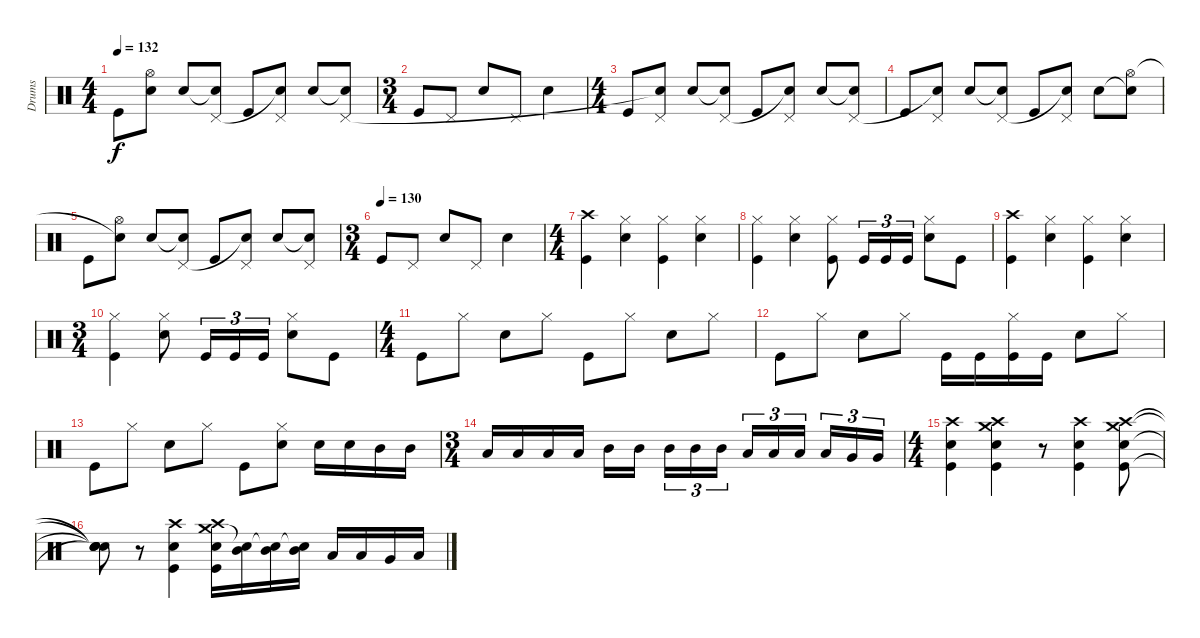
\track ("Drums" "Drums") {instrument percussion}
\staff {score}
\articulation defaults
\ts (4 4)
\tempo 132
\clef neutral
\ks c "Kick (hit)".8{dy f}
("Hi-Hat (open)" "Snare (hit)"{t}).8 "Electric Snare (hit)".8 ("Snare (hit)"{t} "Pedal Hi-Hat (hit)").8 "Kick (hit)".8 ("Pedal Hi-Hat (hit)" "Snare (hit)"{t}).8 "Electric Snare (hit)".8 ("Snare (hit)"{t} "Pedal Hi-Hat (hit)").8 |
\ts (3 4)
"Kick (hit)".8 "Pedal Hi-Hat (hit)".8 "Electric Snare (hit)".8 "Pedal Hi-Hat (hit)".8 "Electric Snare (hit)".4 |
\ts (4 4)
"Kick (hit)".8 ("Pedal Hi-Hat (hit)" "Snare (hit)"{t}).8 "Electric Snare (hit)".8 ("Snare (hit)"{t} "Pedal Hi-Hat (hit)").8 "Kick (hit)".8 ("Pedal Hi-Hat (hit)" "Snare (hit)"{t}).8 "Electric Snare (hit)".8 ("Snare (hit)"{t} "Pedal Hi-Hat (hit)").8 |
"Kick (hit)".8 ("Pedal Hi-Hat (hit)" "Snare (hit)"{t}).8 "Electric Snare (hit)".8 ("Snare (hit)"{t} "Pedal Hi-Hat (hit)").8 "Kick (hit)".8 ("Pedal Hi-Hat (hit)" "Snare (hit)"{t}).8 "Electric Snare (hit)".8 ("Snare (hit)"{t} "Hi-Hat (open)").8 |
"Kick (hit)".8 ("Hi-Hat (open)" "Snare (hit)"{t}).8 "Electric Snare (hit)".8 ("Snare (hit)"{t} "Pedal Hi-Hat (hit)").8 "Kick (hit)".8 ("Pedal Hi-Hat (hit)" "Snare (hit)"{t}).8 "Electric Snare (hit)".8 ("Snare (hit)"{t} "Pedal Hi-Hat (hit)").8 |
\ts (3 4)
\tempo (130)
"Kick (hit)".8 "Pedal Hi-Hat (hit)".8 "Electric Snare (hit)".8 "Pedal Hi-Hat (hit)".8 "Electric Snare (hit)".4 |
\ts (4 4)
("Crash high (hit)" "Kick (hit)").4 ("Electric Snare (hit)" "Hi-Hat (closed)").4 ("Hi-Hat (closed)" "Kick (hit)").4 ("Electric Snare (hit)" "Hi-Hat (closed)").4 |
("Hi-Hat (closed)" "Kick (hit)").4 ("Electric Snare (hit)" "Hi-Hat (closed)").4 ("Hi-Hat (closed)" "Kick (hit)").8 "Kick (hit)".16{tu (3 2)} "Kick (hit)".16{tu (3 2)} "Kick (hit)".16{tu (3 2)} ("Electric Snare (hit)" "Hi-Hat (closed)").8 "Kick (hit)".8 |
("Crash high (hit)" "Kick (hit)").4 ("Electric Snare (hit)" "Hi-Hat (closed)").4 ("Hi-Hat (closed)" "Kick (hit)").4 ("Electric Snare (hit)" "Hi-Hat (closed)").4 |
\ts (3 4)
("Hi-Hat (closed)" "Kick (hit)").4 ("Electric Snare (hit)" "Hi-Hat (closed)").8 "Kick (hit)".16{tu (3 2)} "Kick (hit)".16{tu (3 2)} "Kick (hit)".16{tu (3 2)} ("Electric Snare (hit)" "Hi-Hat (closed)").8 "Kick (hit)".8 |
\ts (4 4)
"Kick (hit)".8 "Hi-Hat (closed)".8 "Electric Snare (hit)".8 "Hi-Hat (closed)".8 "Kick (hit)".8 "Hi-Hat (closed)".8 "Electric Snare (hit)".8 "Hi-Hat (closed)".8 |
"Kick (hit)".8 "Hi-Hat (closed)".8 "Electric Snare (hit)".8 "Hi-Hat (closed)".8 "Kick (hit)".16 "Kick (hit)".16 ("Hi-Hat (closed)" "Kick (hit)").16 "Kick (hit)".16 "Electric Snare (hit)".8 "Hi-Hat (closed)".8 |
"Kick (hit)".8 "Hi-Hat (closed)".8 "Electric Snare (hit)".8 "Hi-Hat (closed)".8 "Kick (hit)".8 ("Electric Snare (hit)" "Hi-Hat (closed)").8 "Electric Snare (hit)".16 "Electric Snare (hit)".16 "Mid Tom (hit)".16 "Mid Tom (hit)".16 |
\ts (3 4)
"Low Tom (hit)".16 "Low Tom (hit)".16 "Low Tom (hit)".16 "Low Tom (hit)".16 "Mid Tom (hit)".16 "Mid Tom (hit)".16 "Mid Tom (hit)".16{tu (3 2)} "Mid Tom (hit)".16{tu (3 2)} "Mid Tom (hit)".16{tu (3 2)} "Low Tom (hit)".16{tu (3 2)} "Low Tom (hit)".16{tu (3 2)} "Low Tom (hit)".16{tu (3 2)} "Low Tom (hit)".16{tu (3 2)} "Very Low Tom (hit)".16{tu (3 2)} "Very Low Tom (hit)".16{tu (3 2)} |
\ts (4 4)
("Electric Snare (hit)" "Crash high (hit)" "Kick (hit)").4 ("Electric Snare (hit)" "Crash medium (hit)" "Crash high (hit)" "Kick (hit)").4 r.8 ("Electric Snare (hit)" "Crash high (hit)" "Kick (hit)").4 ("Electric Snare (hit)" "Crash medium (hit)" "Crash high (hit)" "Kick (hit)").8 |
("Snare (hit)"{t} "Snare (hit)"{t} "Snare (hit)"{t} "Snare (hit)"{t}).8 r.8 ("Electric Snare (hit)" "Crash high (hit)" "Kick (hit)").4 ("Electric Snare (hit)" "Crash medium (hit)" "Crash high (hit)" "Kick (hit)").16 ("Mid Tom (hit)" "Snare (hit)"{t}).16 ("Mid Tom (hit)" "Snare (hit)"{t}).16 ("Mid Tom (hit)" "Snare (hit)"{t}).16 "Low Tom (hit)".16 "Low Tom (hit)".16 "Very Low Tom (hit)".16 "Low Floor Tom (hit)".16
